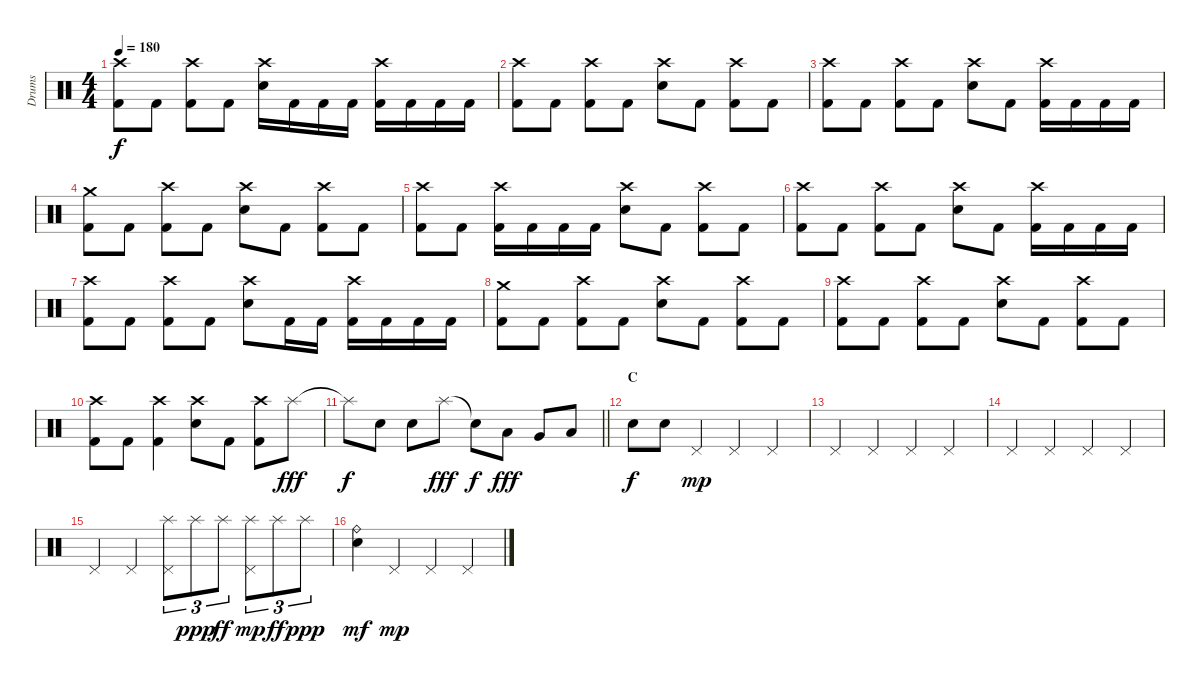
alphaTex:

\track ("Drums" "Drums") {instrument percussion}
\staff {score}
\articulation defaults
\ts (4 4)
\tempo 180
\clef neutral
\ks c
("Kick (hit) 2" "Crash high (hit)").8{dy f} "Kick (hit) 2".8 ("Kick (hit) 2" "Crash high (hit)").8 "Kick (hit) 2".8 ("Crash high (hit)" "Snare (hit) 2").16 "Kick (hit) 2".16 "Kick (hit) 2".16 "Kick (hit) 2".16 ("Kick (hit) 2" "Crash high (hit)").16 "Kick (hit) 2".16 "Kick (hit) 2".16 "Kick (hit) 2".16 |
("Kick (hit) 2" "Crash high (hit)").8 "Kick (hit) 2".8 ("Kick (hit) 2" "Crash high (hit)").8 "Kick (hit) 2".8 ("Crash high (hit)" "Snare (hit) 2").8 "Kick (hit) 2".8 ("Kick (hit) 2" "Crash high (hit)").8 "Kick (hit) 2".8 |
("Kick (hit) 2" "Crash high (hit)").8 "Kick (hit) 2".8 ("Kick (hit) 2" "Crash high (hit)").8 "Kick (hit) 2".8 ("Crash high (hit)" "Snare (hit) 2").8 "Kick (hit) 2".8 ("Kick (hit) 2" "Crash high (hit)").16 "Kick (hit) 2".16 "Kick (hit) 2".16 "Kick (hit) 2".16 |
("Kick (hit) 2" "Crash medium (hit)").8 "Kick (hit) 2".8 ("Kick (hit) 2" "Crash high (hit)").8 "Kick (hit) 2".8 ("Crash high (hit)" "Snare (hit) 2").8 "Kick (hit) 2".8 ("Kick (hit) 2" "Crash high (hit)").8 "Kick (hit) 2".8 |
("Kick (hit) 2" "Crash high (hit)").8 "Kick (hit) 2".8 ("Kick (hit) 2" "Crash high (hit)").16 "Kick (hit) 2".16 "Kick (hit) 2".16 "Kick (hit) 2".16 ("Crash high (hit)" "Snare (hit) 2").8 "Kick (hit) 2".8 ("Kick (hit) 2" "Crash high (hit)").8 "Kick (hit) 2".8 |
("Kick (hit) 2" "Crash high (hit)").8 "Kick (hit) 2".8 ("Kick (hit) 2" "Crash high (hit)").8 "Kick (hit) 2".8 ("Crash high (hit)" "Snare (hit) 2").8 "Kick (hit) 2".8 ("Kick (hit) 2" "Crash high (hit)").16 "Kick (hit) 2".16 "Kick (hit) 2".16 "Kick (hit) 2".16 |
("Kick (hit) 2" "Crash high (hit)").8 "Kick (hit) 2".8 ("Kick (hit) 2" "Crash high (hit)").8 "Kick (hit) 2".8 ("Crash high (hit)" "Snare (hit) 2").8 "Kick (hit) 2".16 "Kick (hit) 2".16 ("Kick (hit) 2" "Crash high (hit)").16 "Kick (hit) 2".16 "Kick (hit) 2".16 "Kick (hit) 2".16 |
("Kick (hit) 2" "Crash medium (hit)").8 "Kick (hit) 2".8 ("Kick (hit) 2" "Crash high (hit)").8 "Kick (hit) 2".8 ("Crash high (hit)" "Snare (hit) 2").8 "Kick (hit) 2".8 ("Kick (hit) 2" "Crash high (hit)").8 "Kick (hit) 2".8 |
("Kick (hit) 2" "Crash high (hit)").8 "Kick (hit) 2".8 ("Kick (hit) 2" "Crash high (hit)").8 "Kick (hit) 2".8 ("Crash high (hit)" "Snare (hit) 2").8 "Kick (hit) 2".8 ("Kick (hit) 2" "Crash high (hit)").8 "Kick (hit) 2".8 |
("Kick (hit) 2" "Crash high (hit)").8 "Kick (hit) 2".8 ("Kick (hit) 2" "Crash high (hit)").4 ("Crash high (hit)" "Snare (hit) 2").8 "Kick (hit) 2".8 ("Kick (hit) 2" "Crash high (hit)").8 "Splash (hit)".8{dy fff} |
\barLineRight lightlight "Splash (hit)"{t}.8{dy f} "Snare (hit) 2".8 "Snare (hit) 2".8 "Splash (hit)".8{dy fff} "Snare (hit)"{t}.8{dy f} "Low Tom (hit)".8{dy fff} "Very Low Tom (hit)".8 "Low Floor Tom (hit)".8
|
\section ("" "C")
"Snare (hit) 2".8{dy f} "Snare (hit) 2".8 "Pedal Hi-Hat (hit)".4{dy mp} "Pedal Hi-Hat (hit)".4 "Pedal Hi-Hat (hit)".4 |
"Pedal Hi-Hat (hit)".4 "Pedal Hi-Hat (hit)".4 "Pedal Hi-Hat (hit)".4 "Pedal Hi-Hat (hit)".4 |
"Pedal Hi-Hat (hit)".4 "Pedal Hi-Hat (hit)".4 "Pedal Hi-Hat (hit)".4 "Pedal Hi-Hat (hit)".4 |
"Pedal Hi-Hat (hit)".4 "Pedal Hi-Hat (hit)".4 ("Splash (hit)" "Pedal Hi-Hat (hit)").8{tu (3 2)} "Splash (hit)".8{tu (3 2) dy ppp} "Splash (hit)".8{tu (3 2) dy ff} ("Splash (hit)" "Pedal Hi-Hat (hit)").8{tu (3 2) dy mp} "Splash (hit)".8{tu (3 2) dy ff} "Splash (hit)".8{tu (3 2) dy ppp} |
("Metronome (bell)" "Ride (bell)").4{dy mf} "Pedal Hi-Hat (hit)".4{dy mp} "Pedal Hi-Hat (hit)".4 "Pedal Hi-Hat (hit)".4
